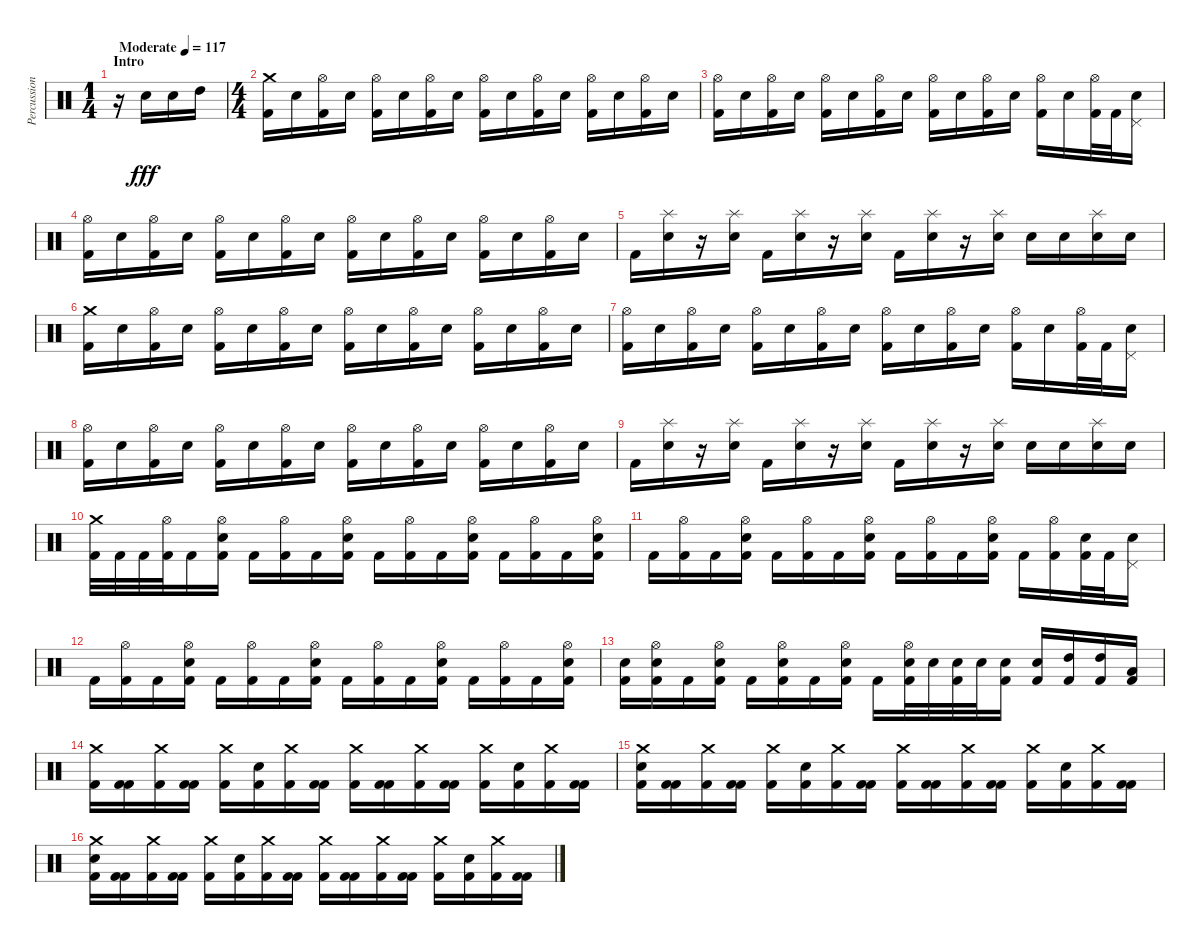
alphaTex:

\track ("Percussioni" "Percussion") {instrument percussion}
\staff {score}
\articulation defaults
\ts (1 4)
\section ("" "Intro")
\tempo (117 "Moderate")
\clef neutral
\ks c
r.16{dy fff} "Electric Snare (hit)".16 "Electric Snare (hit)".16 "High Tom (hit)".16 |
\ts (4 4)
("Crash medium (hit)" "Kick (hit) 2").16 "Electric Snare (hit)".16 ("Hi-Hat (open)" "Kick (hit) 2").16 "Electric Snare (hit)".16 ("Hi-Hat (open)" "Kick (hit) 2").16 "Electric Snare (hit)".16 ("Hi-Hat (open)" "Kick (hit) 2").16 "Electric Snare (hit)".16 ("Hi-Hat (open)" "Kick (hit) 2").16 "Electric Snare (hit)".16 ("Hi-Hat (open)" "Kick (hit) 2").16 "Electric Snare (hit)".16 ("Hi-Hat (open)" "Kick (hit) 2").16 "Electric Snare (hit)".16 ("Hi-Hat (open)" "Kick (hit) 2").16 "Electric Snare (hit)".16 |
("Hi-Hat (open)" "Kick (hit) 2").16 "Electric Snare (hit)".16 ("Hi-Hat (open)" "Kick (hit) 2").16 "Electric Snare (hit)".16 ("Hi-Hat (open)" "Kick (hit) 2").16 "Electric Snare (hit)".16 ("Hi-Hat (open)" "Kick (hit) 2").16 "Electric Snare (hit)".16 ("Hi-Hat (open)" "Kick (hit) 2").16 "Electric Snare (hit)".16 ("Hi-Hat (open)" "Kick (hit) 2").16 "Electric Snare (hit)".16 ("Hi-Hat (open)" "Kick (hit) 2").16 "Electric Snare (hit)".16 ("Hi-Hat (open)" "Kick (hit) 2").32 "Kick (hit) 2".32 ("Pedal Hi-Hat (hit)" "Electric Snare (hit)").16 |
("Hi-Hat (open)" "Kick (hit) 2").16 "Electric Snare (hit)".16 ("Hi-Hat (open)" "Kick (hit) 2").16 "Electric Snare (hit)".16 ("Hi-Hat (open)" "Kick (hit) 2").16 "Electric Snare (hit)".16 ("Hi-Hat (open)" "Kick (hit) 2").16 "Electric Snare (hit)".16 ("Hi-Hat (open)" "Kick (hit) 2").16 "Electric Snare (hit)".16 ("Hi-Hat (open)" "Kick (hit) 2").16 "Electric Snare (hit)".16 ("Hi-Hat (open)" "Kick (hit) 2").16 "Electric Snare (hit)".16 ("Hi-Hat (open)" "Kick (hit) 2").16 "Electric Snare (hit)".16 |
"Kick (hit) 2".16 ("Splash (hit)" "Electric Snare (hit)").16 r.16 ("Splash (hit)" "Electric Snare (hit)").16 "Kick (hit) 2".16 ("Splash (hit)" "Electric Snare (hit)").16 r.16 ("Splash (hit)" "Electric Snare (hit)").16 "Kick (hit) 2".16 ("Splash (hit)" "Electric Snare (hit)").16 r.16 ("Splash (hit)" "Electric Snare (hit)").16 "Electric Snare (hit)".16 "Electric Snare (hit)".16 ("Splash (hit)" "Electric Snare (hit)").16 "Electric Snare (hit)".16 |
("Crash medium (hit)" "Kick (hit) 2").16 "Electric Snare (hit)".16 ("Hi-Hat (open)" "Kick (hit) 2").16 "Electric Snare (hit)".16 ("Hi-Hat (open)" "Kick (hit) 2").16 "Electric Snare (hit)".16 ("Hi-Hat (open)" "Kick (hit) 2").16 "Electric Snare (hit)".16 ("Hi-Hat (open)" "Kick (hit) 2").16 "Electric Snare (hit)".16 ("Hi-Hat (open)" "Kick (hit) 2").16 "Electric Snare (hit)".16 ("Hi-Hat (open)" "Kick (hit) 2").16 "Electric Snare (hit)".16 ("Hi-Hat (open)" "Kick (hit) 2").16 "Electric Snare (hit)".16 |
("Hi-Hat (open)" "Kick (hit) 2").16 "Electric Snare (hit)".16 ("Hi-Hat (open)" "Kick (hit) 2").16 "Electric Snare (hit)".16 ("Hi-Hat (open)" "Kick (hit) 2").16 "Electric Snare (hit)".16 ("Hi-Hat (open)" "Kick (hit) 2").16 "Electric Snare (hit)".16 ("Hi-Hat (open)" "Kick (hit) 2").16 "Electric Snare (hit)".16 ("Hi-Hat (open)" "Kick (hit) 2").16 "Electric Snare (hit)".16 ("Hi-Hat (open)" "Kick (hit) 2").16 "Electric Snare (hit)".16 ("Hi-Hat (open)" "Kick (hit) 2").32 "Kick (hit) 2".32 ("Pedal Hi-Hat (hit)" "Electric Snare (hit)").16 |
("Hi-Hat (open)" "Kick (hit) 2").16 "Electric Snare (hit)".16 ("Hi-Hat (open)" "Kick (hit) 2").16 "Electric Snare (hit)".16 ("Hi-Hat (open)" "Kick (hit) 2").16 "Electric Snare (hit)".16 ("Hi-Hat (open)" "Kick (hit) 2").16 "Electric Snare (hit)".16 ("Hi-Hat (open)" "Kick (hit) 2").16 "Electric Snare (hit)".16 ("Hi-Hat (open)" "Kick (hit) 2").16 "Electric Snare (hit)".16 ("Hi-Hat (open)" "Kick (hit) 2").16 "Electric Snare (hit)".16 ("Hi-Hat (open)" "Kick (hit) 2").16 "Electric Snare (hit)".16 |
"Kick (hit) 2".16 ("Splash (hit)" "Electric Snare (hit)").16 r.16 ("Splash (hit)" "Electric Snare (hit)").16 "Kick (hit) 2".16 ("Splash (hit)" "Electric Snare (hit)").16 r.16 ("Splash (hit)" "Electric Snare (hit)").16 "Kick (hit) 2".16 ("Splash (hit)" "Electric Snare (hit)").16 r.16 ("Splash (hit)" "Electric Snare (hit)").16 "Electric Snare (hit)".16 "Electric Snare (hit)".16 ("Splash (hit)" "Electric Snare (hit)").16 "Electric Snare (hit)".16 |
("Crash medium (hit)" "Kick (hit) 2").32 "Kick (hit) 2".32 "Kick (hit) 2".32 ("Hi-Hat (open)" "Kick (hit) 2").32 "Kick (hit) 2".16 ("Hi-Hat (open)" "Electric Snare (hit)" "Kick (hit) 2").16 "Kick (hit) 2".16 ("Hi-Hat (open)" "Kick (hit) 2").16 "Kick (hit) 2".16 ("Hi-Hat (open)" "Electric Snare (hit)" "Kick (hit) 2").16 "Kick (hit) 2".16 ("Hi-Hat (open)" "Kick (hit) 2").16 "Kick (hit) 2".16 ("Hi-Hat (open)" "Electric Snare (hit)" "Kick (hit) 2").16 "Kick (hit) 2".16 ("Hi-Hat (open)" "Kick (hit) 2").16 "Kick (hit) 2".16 ("Hi-Hat (open)" "Electric Snare (hit)" "Kick (hit) 2").16 |
"Kick (hit) 2".16 ("Hi-Hat (open)" "Kick (hit) 2").16 "Kick (hit) 2".16 ("Hi-Hat (open)" "Electric Snare (hit)" "Kick (hit) 2").16 "Kick (hit) 2".16 ("Hi-Hat (open)" "Kick (hit) 2").16 "Kick (hit) 2".16 ("Hi-Hat (open)" "Electric Snare (hit)" "Kick (hit) 2").16 "Kick (hit) 2".16 ("Hi-Hat (open)" "Kick (hit) 2").16 "Kick (hit) 2".16 ("Hi-Hat (open)" "Electric Snare (hit)" "Kick (hit) 2").16 "Kick (hit) 2".16 ("Hi-Hat (open)" "Kick (hit) 2").16 ("Electric Snare (hit)" "Kick (hit) 2").32 "Kick (hit) 2".32 ("Pedal Hi-Hat (hit)" "Electric Snare (hit)").16 |
"Kick (hit) 2".16 ("Hi-Hat (open)" "Kick (hit) 2").16 "Kick (hit) 2".16 ("Hi-Hat (open)" "Electric Snare (hit)" "Kick (hit) 2").16 "Kick (hit) 2".16 ("Hi-Hat (open)" "Kick (hit) 2").16 "Kick (hit) 2".16 ("Hi-Hat (open)" "Electric Snare (hit)" "Kick (hit) 2").16 "Kick (hit) 2".16 ("Hi-Hat (open)" "Kick (hit) 2").16 "Kick (hit) 2".16 ("Hi-Hat (open)" "Electric Snare (hit)" "Kick (hit) 2").16 "Kick (hit) 2".16 ("Hi-Hat (open)" "Kick (hit) 2").16 "Kick (hit) 2".16 ("Hi-Hat (open)" "Electric Snare (hit)" "Kick (hit) 2").16 |
("Electric Snare (hit)" "Kick (hit) 2").16 ("Hi-Hat (open)" "Electric Snare (hit)" "Kick (hit) 2").16 "Kick (hit) 2".16 ("Hi-Hat (open)" "Electric Snare (hit)" "Kick (hit) 2").16 "Kick (hit) 2".16 ("Hi-Hat (open)" "Electric Snare (hit)" "Kick (hit) 2").16 "Kick (hit) 2".16 ("Hi-Hat (open)" "Electric Snare (hit)" "Kick (hit) 2").16 "Kick (hit) 2".16 ("Hi-Hat (open)" "Electric Snare (hit)" "Kick (hit) 2").32 "Electric Snare (hit)".32 ("Electric Snare (hit)" "Kick (hit) 2").32 "Electric Snare (hit)".32 ("Electric Snare (hit)" "Kick (hit) 2").16 ("Electric Snare (hit)" "Kick (hit) 2").16 ("High Tom (hit)" "Kick (hit) 2").16 ("High Tom (hit)" "Kick (hit) 2").16 ("Low Tom (hit)" "Kick (hit) 2").16 |
("Crash medium (hit)" "Kick (hit) 2").16 ("Kick (hit) 2" "Kick (hit) 2").16 ("Crash medium (hit)" "Kick (hit) 2").16 ("Kick (hit) 2" "Kick (hit) 2").16 ("Crash medium (hit)" "Kick (hit) 2").16 ("Electric Snare (hit)" "Kick (hit) 2").16 ("Crash medium (hit)" "Kick (hit) 2").16 ("Kick (hit) 2" "Kick (hit) 2").16 ("Crash medium (hit)" "Kick (hit) 2").16 ("Kick (hit) 2" "Kick (hit) 2").16 ("Crash medium (hit)" "Kick (hit) 2").16 ("Kick (hit) 2" "Kick (hit) 2").16 ("Crash medium (hit)" "Kick (hit) 2").16 ("Electric Snare (hit)" "Kick (hit) 2").16 ("Crash medium (hit)" "Kick (hit) 2").16 ("Kick (hit) 2" "Kick (hit) 2").16 |
("Crash medium (hit)" "Electric Snare (hit)" "Kick (hit) 2").16 ("Kick (hit) 2" "Kick (hit) 2").16 ("Crash medium (hit)" "Kick (hit) 2").16 ("Kick (hit) 2" "Kick (hit) 2").16 ("Crash medium (hit)" "Kick (hit) 2").16 ("Electric Snare (hit)" "Kick (hit) 2").16 ("Crash medium (hit)" "Kick (hit) 2").16 ("Kick (hit) 2" "Kick (hit) 2").16 ("Crash medium (hit)" "Kick (hit) 2").16 ("Kick (hit) 2" "Kick (hit) 2").16 ("Crash medium (hit)" "Kick (hit) 2").16 ("Kick (hit) 2" "Kick (hit) 2").16 ("Crash medium (hit)" "Kick (hit) 2").16 ("Electric Snare (hit)" "Kick (hit) 2").16 ("Crash medium (hit)" "Kick (hit) 2").16 ("Kick (hit) 2" "Kick (hit) 2").16 |
("Crash medium (hit)" "Electric Snare (hit)" "Kick (hit) 2").16 ("Kick (hit) 2" "Kick (hit) 2").16 ("Crash medium (hit)" "Kick (hit) 2").16 ("Kick (hit) 2" "Kick (hit) 2").16 ("Crash medium (hit)" "Kick (hit) 2").16 ("Electric Snare (hit)" "Kick (hit) 2").16 ("Crash medium (hit)" "Kick (hit) 2").16 ("Kick (hit) 2" "Kick (hit) 2").16 ("Crash medium (hit)" "Kick (hit) 2").16 ("Kick (hit) 2" "Kick (hit) 2").16 ("Crash medium (hit)" "Kick (hit) 2").16 ("Kick (hit) 2" "Kick (hit) 2").16 ("Crash medium (hit)" "Kick (hit) 2").16 ("Electric Snare (hit)" "Kick (hit) 2").16 ("Crash medium (hit)" "Kick (hit) 2").16 ("Kick (hit) 2" "Kick (hit) 2").16
